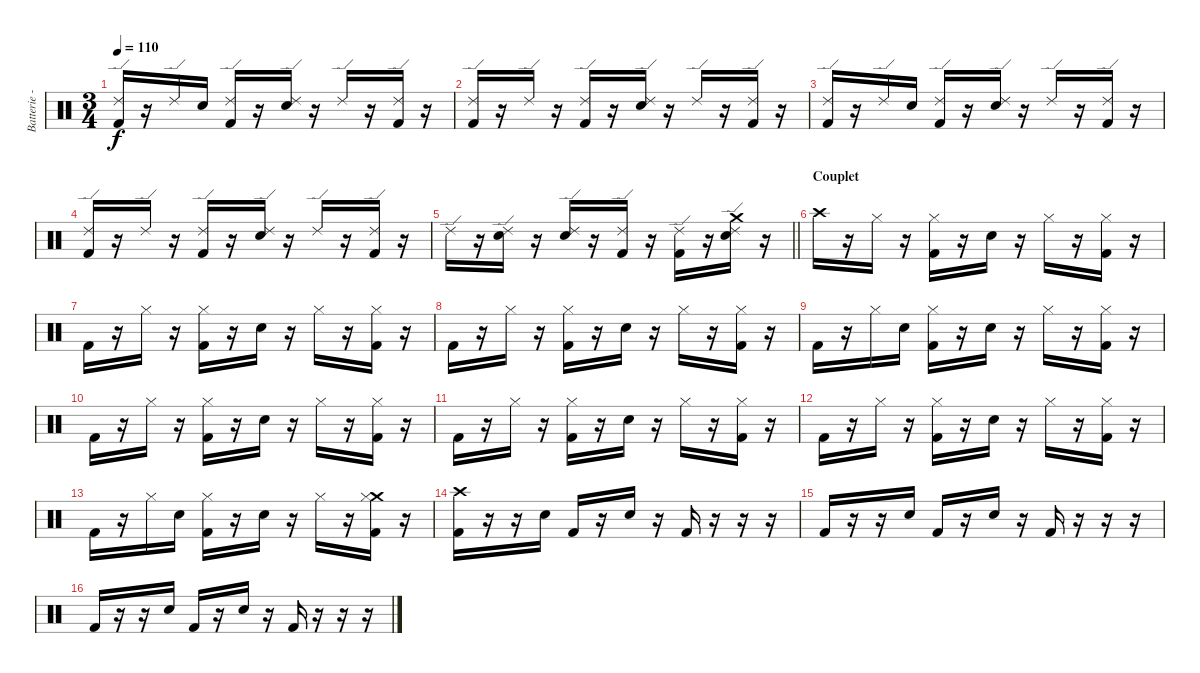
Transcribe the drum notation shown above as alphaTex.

\track ("Batterie - Toshiya" "Batterie -") {instrument percussion}
\staff {score}
\articulation defaults
\ts (3 4)
\tempo 110
\clef neutral
\ks c
("Ride (edge) 2" "Kick (hit) 2").16{dy f} r.16 "Ride (edge) 2".16 "Electric Snare (hit)".16 ("Ride (edge) 2" "Kick (hit) 2").16 r.16 ("Ride (edge) 2" "Electric Snare (hit)").16 r.16 "Ride (edge) 2".16 r.16 ("Ride (edge) 2" "Kick (hit) 2").16 r.16 |
("Ride (edge) 2" "Kick (hit) 2").16 r.16 "Ride (edge) 2".16 r.16 ("Ride (edge) 2" "Kick (hit) 2").16 r.16 ("Ride (edge) 2" "Electric Snare (hit)").16 r.16 "Ride (edge) 2".16 r.16 ("Ride (edge) 2" "Kick (hit) 2").16 r.16 |
("Ride (edge) 2" "Kick (hit) 2").16 r.16 "Ride (edge) 2".16 "Electric Snare (hit)".16 ("Ride (edge) 2" "Kick (hit) 2").16 r.16 ("Ride (edge) 2" "Electric Snare (hit)").16 r.16 "Ride (edge) 2".16 r.16 ("Ride (edge) 2" "Kick (hit) 2").16 r.16 |
("Ride (edge) 2" "Kick (hit) 2").16 r.16 "Ride (edge) 2".16 r.16 ("Ride (edge) 2" "Kick (hit) 2").16 r.16 ("Ride (edge) 2" "Electric Snare (hit)").16 r.16 "Ride (edge) 2".16 r.16 ("Ride (edge) 2" "Kick (hit) 2").16 r.16 |
\barLineRight lightlight "Ride (edge) 2".16
r.16 ("Ride (edge) 2" "Electric Snare (hit)").16 r.16 ("Ride (edge) 2" "Electric Snare (hit)").16 r.16 ("Ride (edge) 2" "Kick (hit) 2").16 r.16 ("Ride (edge) 2" "Kick (hit) 2").16 r.16 ("Ride (edge) 2" "Crash medium (hit)" "Electric Snare (hit)").16 r.16 |
\section ("" "Couplet")
"Crash high (hit)".16 r.16 "Hi-Hat (closed)".16 r.16 ("Hi-Hat (closed)" "Kick (hit) 2").16 r.16 "Electric Snare (hit)".16 r.16 "Hi-Hat (closed)".16 r.16 ("Hi-Hat (closed)" "Kick (hit) 2").16 r.16 |
"Kick (hit) 2".16 r.16 "Hi-Hat (closed)".16 r.16 ("Hi-Hat (closed)" "Kick (hit) 2").16 r.16 "Electric Snare (hit)".16 r.16 "Hi-Hat (closed)".16 r.16 ("Hi-Hat (closed)" "Kick (hit) 2").16 r.16 |
"Kick (hit) 2".16 r.16 "Hi-Hat (closed)".16 r.16 ("Hi-Hat (closed)" "Kick (hit) 2").16 r.16 "Electric Snare (hit)".16 r.16 "Hi-Hat (closed)".16 r.16 ("Hi-Hat (closed)" "Kick (hit) 2").16 r.16 |
"Kick (hit) 2".16 r.16 "Hi-Hat (closed)".16 "Electric Snare (hit)".16 ("Hi-Hat (closed)" "Kick (hit) 2").16 r.16 "Electric Snare (hit)".16 r.16 "Hi-Hat (closed)".16 r.16 ("Hi-Hat (closed)" "Kick (hit) 2").16 r.16 |
"Kick (hit) 2".16 r.16 "Hi-Hat (closed)".16 r.16 ("Hi-Hat (closed)" "Kick (hit) 2").16 r.16 "Electric Snare (hit)".16 r.16 "Hi-Hat (closed)".16 r.16 ("Hi-Hat (closed)" "Kick (hit) 2").16 r.16 |
"Kick (hit) 2".16 r.16 "Hi-Hat (closed)".16 r.16 ("Hi-Hat (closed)" "Kick (hit) 2").16 r.16 "Electric Snare (hit)".16 r.16 "Hi-Hat (closed)".16 r.16 ("Hi-Hat (closed)" "Kick (hit) 2").16 r.16 |
"Kick (hit) 2".16 r.16 "Hi-Hat (closed)".16 r.16 ("Hi-Hat (closed)" "Kick (hit) 2").16 r.16 "Electric Snare (hit)".16 r.16 "Hi-Hat (closed)".16 r.16 ("Hi-Hat (closed)" "Kick (hit) 2").16 r.16 |
"Kick (hit) 2".16 r.16 "Hi-Hat (closed)".16 "Electric Snare (hit)".16 ("Hi-Hat (closed)" "Kick (hit) 2").16 r.16 "Electric Snare (hit)".16 r.16 "Hi-Hat (closed)".16 r.16 ("Crash medium (hit)" "Hi-Hat (closed)" "Kick (hit) 2").16 r.16 |
("Crash high (hit)" "Kick (hit) 2").16 r.16 r.16 "Electric Snare (hit)".16 "Kick (hit) 2".16 r.16 "Electric Snare (hit)".16 r.16 "Kick (hit) 2".16 r.16 r.16 r.16 |
"Kick (hit) 2".16 r.16 r.16 "Electric Snare (hit)".16 "Kick (hit) 2".16 r.16 "Electric Snare (hit)".16 r.16 "Kick (hit) 2".16 r.16 r.16 r.16 |
"Kick (hit) 2".16 r.16 r.16 "Electric Snare (hit)".16 "Kick (hit) 2".16 r.16 "Electric Snare (hit)".16 r.16 "Kick (hit) 2".16 r.16 r.16 r.16
